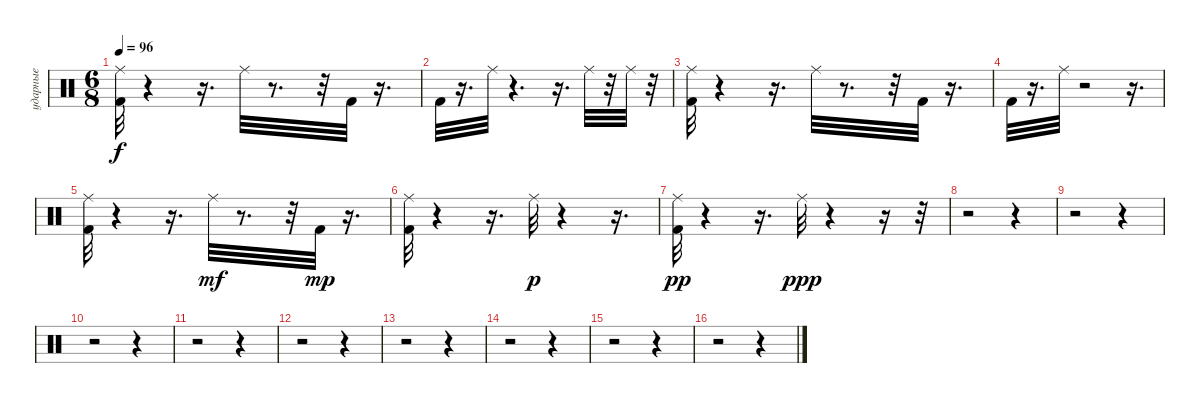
\track ("ударные" "ударные") {instrument percussion}
\staff {score}
\articulation defaults
\ts (6 8)
\tempo 96
\clef neutral
\ks c
("Ride (middle)" "Kick (hit) 2").32{dy f} r.4 r.16{d} "Ride (middle)".32 r.8{d} r.32 "Kick (hit) 2".32 r.16{d} |
"Kick (hit) 2".32 r.16{d} "Ride (middle)".32 r.4{d} r.16{d} "Ride (middle)".32 r.32 "Ride (middle)".32 r.32 |
("Ride (middle)" "Kick (hit) 2").32 r.4 r.16{d} "Ride (middle)".32 r.8{d} r.32 "Kick (hit) 2".32 r.16{d} |
"Kick (hit) 2".32 r.16{d} "Ride (middle)".32 r.2 r.16{d} |
("Ride (middle)" "Kick (hit) 2").32 r.4 r.16{d} "Ride (middle)".32{dy mf} r.8{d} r.32 "Kick (hit) 2".32{dy mp} r.16{d} |
("Ride (middle)" "Kick (hit) 2").32 r.4 r.16{d} "Ride (middle)".32{dy p} r.4 r.16{d} |
("Ride (middle)" "Kick (hit) 2").32{dy pp} r.4 r.16{d} "Ride (middle)".32{dy ppp} r.4 r.16 r.32 |
r.2 r.4 |
r.2 r.4 |
r.2 r.4 |
r.2 r.4 |
r.2 r.4 |
r.2 r.4 |
r.2 r.4 |
r.2 r.4 |
r.2 r.4
